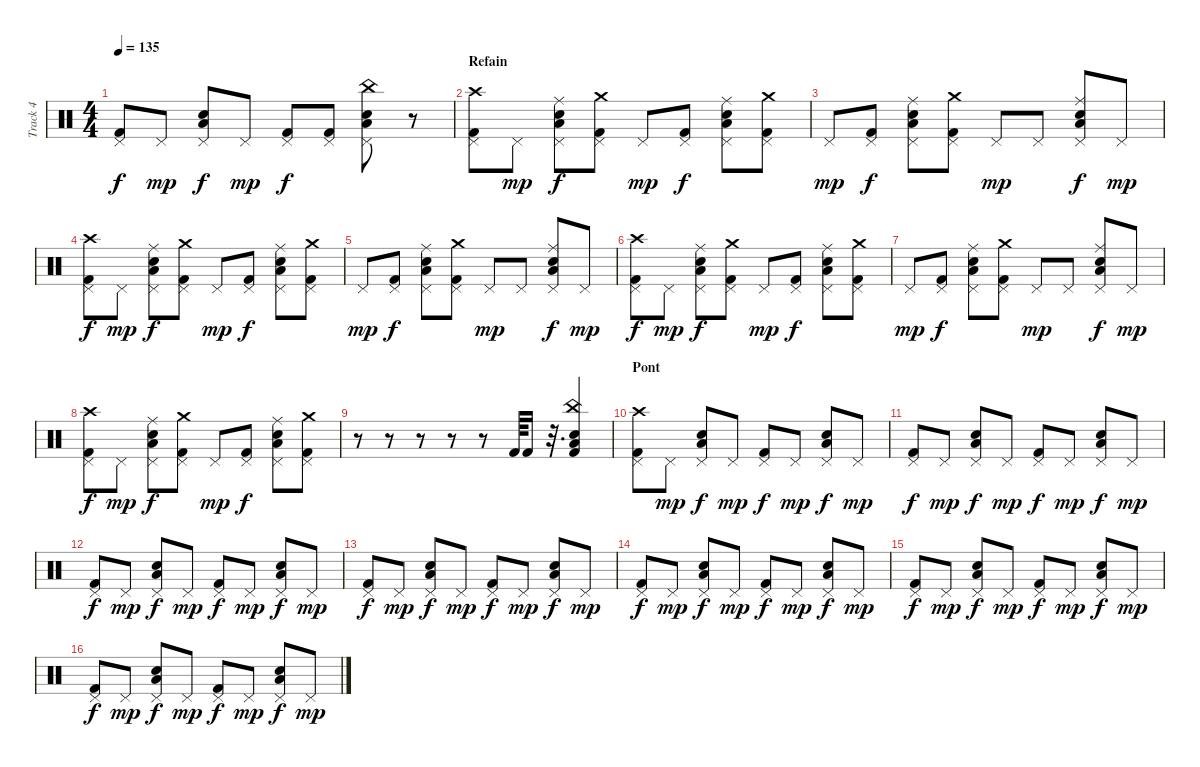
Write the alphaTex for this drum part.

\track ("Track 4" "Track 4") {instrument percussion}
\staff {score}
\articulation defaults
\ts (4 4)
\tempo 135
\clef neutral
\ks c
("Pedal Hi-Hat (hit)" "Kick (hit) 2").8{dy f} "Pedal Hi-Hat (hit)".8{dy mp} ("Pedal Hi-Hat (hit)" "Low Tom (hit)" "Electric Snare (hit)").8{dy f} "Pedal Hi-Hat (hit)".8{dy mp} ("Pedal Hi-Hat (hit)" "Kick (hit) 2").8{dy f} ("Pedal Hi-Hat (hit)" "Kick (hit) 2").8 ("Pedal Hi-Hat (hit)" "Low Tom (hit)" "Electric Snare (hit)" "China (hit)").8 r.8 |
\section ("" "Refain")
("Pedal Hi-Hat (hit)" "Kick (hit) 2" "Crash high (hit)").8 "Pedal Hi-Hat (hit)".8{dy mp} ("Pedal Hi-Hat (hit)" "Low Tom (hit)" "Electric Snare (hit)" "Ride (middle)").8{dy f} ("Pedal Hi-Hat (hit)" "Kick (hit) 2" "Crash medium (hit)").8 "Pedal Hi-Hat (hit)".8{dy mp} ("Pedal Hi-Hat (hit)" "Kick (hit) 2").8{dy f} ("Pedal Hi-Hat (hit)" "Low Tom (hit)" "Electric Snare (hit)" "Ride (middle)").8 ("Pedal Hi-Hat (hit)" "Kick (hit) 2" "Crash medium (hit)").8 |
"Pedal Hi-Hat (hit)".8{dy mp} ("Pedal Hi-Hat (hit)" "Kick (hit) 2").8{dy f} ("Pedal Hi-Hat (hit)" "Low Tom (hit)" "Electric Snare (hit)" "Ride (middle)").8 ("Pedal Hi-Hat (hit)" "Kick (hit) 2" "Crash medium (hit)").8 "Pedal Hi-Hat (hit)".8{dy mp} "Pedal Hi-Hat (hit)".8 ("Pedal Hi-Hat (hit)" "Low Tom (hit)" "Electric Snare (hit)" "Ride (middle)").8{dy f} "Pedal Hi-Hat (hit)".8{dy mp} |
("Pedal Hi-Hat (hit)" "Kick (hit) 2" "Crash high (hit)").8{dy f} "Pedal Hi-Hat (hit)".8{dy mp} ("Pedal Hi-Hat (hit)" "Low Tom (hit)" "Electric Snare (hit)" "Ride (middle)").8{dy f} ("Pedal Hi-Hat (hit)" "Kick (hit) 2" "Crash medium (hit)").8 "Pedal Hi-Hat (hit)".8{dy mp} ("Pedal Hi-Hat (hit)" "Kick (hit) 2").8{dy f} ("Pedal Hi-Hat (hit)" "Low Tom (hit)" "Electric Snare (hit)" "Ride (middle)").8 ("Pedal Hi-Hat (hit)" "Kick (hit) 2" "Crash medium (hit)").8 |
"Pedal Hi-Hat (hit)".8{dy mp} ("Pedal Hi-Hat (hit)" "Kick (hit) 2").8{dy f} ("Pedal Hi-Hat (hit)" "Low Tom (hit)" "Electric Snare (hit)" "Ride (middle)").8 ("Pedal Hi-Hat (hit)" "Kick (hit) 2" "Crash medium (hit)").8 "Pedal Hi-Hat (hit)".8{dy mp} "Pedal Hi-Hat (hit)".8 ("Pedal Hi-Hat (hit)" "Low Tom (hit)" "Electric Snare (hit)" "Ride (middle)").8{dy f} "Pedal Hi-Hat (hit)".8{dy mp} |
("Pedal Hi-Hat (hit)" "Kick (hit) 2" "Crash high (hit)").8{dy f} "Pedal Hi-Hat (hit)".8{dy mp} ("Pedal Hi-Hat (hit)" "Low Tom (hit)" "Electric Snare (hit)" "Ride (middle)").8{dy f} ("Pedal Hi-Hat (hit)" "Kick (hit) 2" "Crash medium (hit)").8 "Pedal Hi-Hat (hit)".8{dy mp} ("Pedal Hi-Hat (hit)" "Kick (hit) 2").8{dy f} ("Pedal Hi-Hat (hit)" "Low Tom (hit)" "Electric Snare (hit)" "Ride (middle)").8 ("Pedal Hi-Hat (hit)" "Kick (hit) 2" "Crash medium (hit)").8 |
"Pedal Hi-Hat (hit)".8{dy mp} ("Pedal Hi-Hat (hit)" "Kick (hit) 2").8{dy f} ("Pedal Hi-Hat (hit)" "Low Tom (hit)" "Electric Snare (hit)" "Ride (middle)").8 ("Pedal Hi-Hat (hit)" "Kick (hit) 2" "Crash medium (hit)").8 "Pedal Hi-Hat (hit)".8{dy mp} "Pedal Hi-Hat (hit)".8 ("Pedal Hi-Hat (hit)" "Low Tom (hit)" "Electric Snare (hit)" "Ride (middle)").8{dy f} "Pedal Hi-Hat (hit)".8{dy mp} |
("Pedal Hi-Hat (hit)" "Kick (hit) 2" "Crash high (hit)").8{dy f} "Pedal Hi-Hat (hit)".8{dy mp} ("Pedal Hi-Hat (hit)" "Low Tom (hit)" "Electric Snare (hit)" "Ride (middle)").8{dy f} ("Pedal Hi-Hat (hit)" "Kick (hit) 2" "Crash medium (hit)").8 "Pedal Hi-Hat (hit)".8{dy mp} ("Pedal Hi-Hat (hit)" "Kick (hit) 2").8{dy f} ("Pedal Hi-Hat (hit)" "Low Tom (hit)" "Electric Snare (hit)" "Ride (middle)").8 ("Pedal Hi-Hat (hit)" "Kick (hit) 2" "Crash medium (hit)").8 |
r.8 r.8 r.8 r.8 r.8 "Kick (hit) 2".64 "Kick (hit) 2".16 r.32{d} ("Low Tom (hit)" "Snare (hit) 2" "Kick (hit) 2" "China (hit)").4 |
\section ("" "Pont")
("Pedal Hi-Hat (hit)" "Kick (hit) 2" "Crash high (hit)").8 "Pedal Hi-Hat (hit)".8{dy mp} ("Pedal Hi-Hat (hit)" "Low Tom (hit)" "Electric Snare (hit)").8{dy f} "Pedal Hi-Hat (hit)".8{dy mp} ("Pedal Hi-Hat (hit)" "Kick (hit) 2").8{dy f} "Pedal Hi-Hat (hit)".8{dy mp} ("Pedal Hi-Hat (hit)" "Low Tom (hit)" "Electric Snare (hit)").8{dy f} "Pedal Hi-Hat (hit)".8{dy mp} |
("Pedal Hi-Hat (hit)" "Kick (hit) 2").8{dy f} "Pedal Hi-Hat (hit)".8{dy mp} ("Pedal Hi-Hat (hit)" "Low Tom (hit)" "Electric Snare (hit)").8{dy f} "Pedal Hi-Hat (hit)".8{dy mp} ("Pedal Hi-Hat (hit)" "Kick (hit) 2").8{dy f} "Pedal Hi-Hat (hit)".8{dy mp} ("Pedal Hi-Hat (hit)" "Low Tom (hit)" "Electric Snare (hit)").8{dy f} "Pedal Hi-Hat (hit)".8{dy mp} |
("Pedal Hi-Hat (hit)" "Kick (hit) 2").8{dy f} "Pedal Hi-Hat (hit)".8{dy mp} ("Pedal Hi-Hat (hit)" "Low Tom (hit)" "Electric Snare (hit)").8{dy f} "Pedal Hi-Hat (hit)".8{dy mp} ("Pedal Hi-Hat (hit)" "Kick (hit) 2").8{dy f} "Pedal Hi-Hat (hit)".8{dy mp} ("Pedal Hi-Hat (hit)" "Low Tom (hit)" "Electric Snare (hit)").8{dy f} "Pedal Hi-Hat (hit)".8{dy mp} |
("Pedal Hi-Hat (hit)" "Kick (hit) 2").8{dy f} "Pedal Hi-Hat (hit)".8{dy mp} ("Pedal Hi-Hat (hit)" "Low Tom (hit)" "Electric Snare (hit)").8{dy f} "Pedal Hi-Hat (hit)".8{dy mp} ("Pedal Hi-Hat (hit)" "Kick (hit) 2").8{dy f} "Pedal Hi-Hat (hit)".8{dy mp} ("Pedal Hi-Hat (hit)" "Low Tom (hit)" "Electric Snare (hit)").8{dy f} "Pedal Hi-Hat (hit)".8{dy mp} |
("Pedal Hi-Hat (hit)" "Kick (hit) 2").8{dy f} "Pedal Hi-Hat (hit)".8{dy mp} ("Pedal Hi-Hat (hit)" "Low Tom (hit)" "Electric Snare (hit)").8{dy f} "Pedal Hi-Hat (hit)".8{dy mp} ("Pedal Hi-Hat (hit)" "Kick (hit) 2").8{dy f} "Pedal Hi-Hat (hit)".8{dy mp} ("Pedal Hi-Hat (hit)" "Low Tom (hit)" "Electric Snare (hit)").8{dy f} "Pedal Hi-Hat (hit)".8{dy mp} |
("Pedal Hi-Hat (hit)" "Kick (hit) 2").8{dy f} "Pedal Hi-Hat (hit)".8{dy mp} ("Pedal Hi-Hat (hit)" "Low Tom (hit)" "Electric Snare (hit)").8{dy f} "Pedal Hi-Hat (hit)".8{dy mp} ("Pedal Hi-Hat (hit)" "Kick (hit) 2").8{dy f} "Pedal Hi-Hat (hit)".8{dy mp} ("Pedal Hi-Hat (hit)" "Low Tom (hit)" "Electric Snare (hit)").8{dy f} "Pedal Hi-Hat (hit)".8{dy mp} |
("Pedal Hi-Hat (hit)" "Kick (hit) 2").8{dy f} "Pedal Hi-Hat (hit)".8{dy mp} ("Pedal Hi-Hat (hit)" "Low Tom (hit)" "Electric Snare (hit)").8{dy f} "Pedal Hi-Hat (hit)".8{dy mp} ("Pedal Hi-Hat (hit)" "Kick (hit) 2").8{dy f} "Pedal Hi-Hat (hit)".8{dy mp} ("Pedal Hi-Hat (hit)" "Low Tom (hit)" "Electric Snare (hit)").8{dy f} "Pedal Hi-Hat (hit)".8{dy mp}
